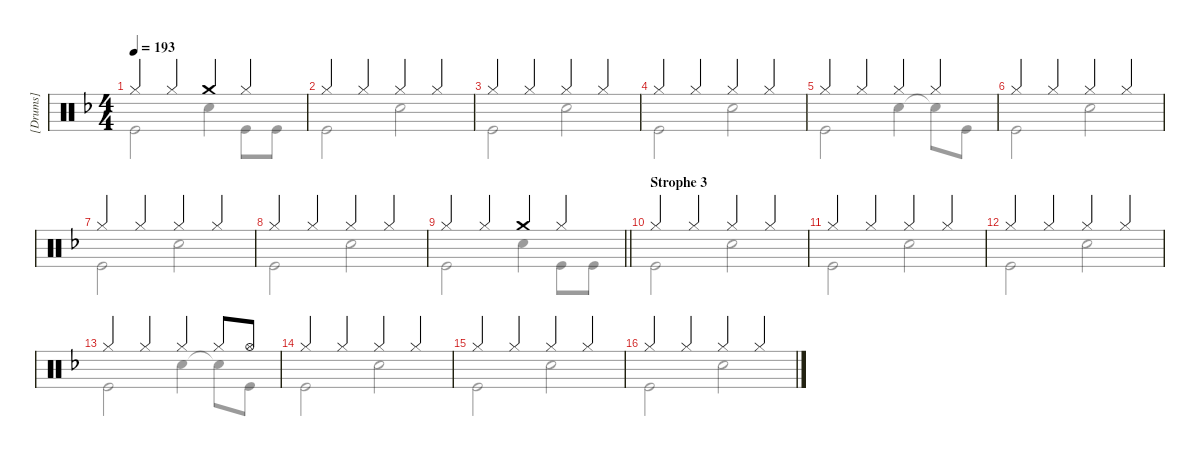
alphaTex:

\hideDynamics
\bracketExtendMode groupsimilarinstruments
\firstSystemTrackNameMode fullname
\otherSystemsTrackNameMode fullname
\otherSystemsTrackNameOrientation horizontal
\track ("[Drums]" "Drums") {instrument percussion}
\staff {score}
\articulation defaults
\voice
\ts (4 4)
\tempo 193
\clef neutral
\ks f "Hi-Hat (closed)".4{dy ff} "Hi-Hat (closed)".4 "Crash medium (hit)".4 "Hi-Hat (closed)".4
|
"Hi-Hat (closed)".4 "Hi-Hat (closed)".4 "Hi-Hat (closed)".4 "Hi-Hat (closed)".4 |
"Hi-Hat (closed)".4 "Hi-Hat (closed)".4 "Hi-Hat (closed)".4 "Hi-Hat (closed)".4 |
"Hi-Hat (closed)".4 "Hi-Hat (closed)".4 "Hi-Hat (closed)".4 "Hi-Hat (closed)".4 |
"Hi-Hat (closed)".4 "Hi-Hat (closed)".4 "Hi-Hat (closed)".4 "Hi-Hat (closed)".4 |
"Hi-Hat (closed)".4 "Hi-Hat (closed)".4 "Hi-Hat (closed)".4 "Hi-Hat (closed)".4 |
"Hi-Hat (closed)".4 "Hi-Hat (closed)".4 "Hi-Hat (closed)".4 "Hi-Hat (closed)".4 |
"Hi-Hat (closed)".4 "Hi-Hat (closed)".4 "Hi-Hat (closed)".4 "Hi-Hat (closed)".4 |
\barLineRight lightlight "Hi-Hat (closed)".4 "Hi-Hat (closed)".4 "Crash medium (hit)".4 "Hi-Hat (closed)".4
|
\section ("" "Strophe 3")
"Hi-Hat (closed)".4 "Hi-Hat (closed)".4 "Hi-Hat (closed)".4 "Hi-Hat (closed)".4 |
"Hi-Hat (closed)".4 "Hi-Hat (closed)".4 "Hi-Hat (closed)".4 "Hi-Hat (closed)".4 |
"Hi-Hat (closed)".4 "Hi-Hat (closed)".4 "Hi-Hat (closed)".4 "Hi-Hat (closed)".4 |
"Hi-Hat (closed)".4 "Hi-Hat (closed)".4 "Hi-Hat (closed)".4 "Hi-Hat (closed)".8 "Hi-Hat (open)".8 |
"Hi-Hat (closed)".4 "Hi-Hat (closed)".4 "Hi-Hat (closed)".4 "Hi-Hat (closed)".4 |
"Hi-Hat (closed)".4 "Hi-Hat (closed)".4 "Hi-Hat (closed)".4 "Hi-Hat (closed)".4 |
"Hi-Hat (closed)".4 "Hi-Hat (closed)".4 "Hi-Hat (closed)".4 "Hi-Hat (closed)".4
\voice
\clef neutral
\ottava regular
\simile none
\ks f "Kick (hit)".2{dy f} "Snare (hit) 2".4 "Kick (hit)".8 "Kick (hit)".8
|
"Kick (hit)".2 "Snare (hit) 2".2 |
"Kick (hit)".2 "Snare (hit) 2".2 |
"Kick (hit)".2 "Snare (hit) 2".2 |
"Kick (hit)".2 "Snare (hit) 2".4 "Snare (hit) 2"{t}.8 "Kick (hit)".8 |
"Kick (hit)".2 "Snare (hit) 2".2 |
"Kick (hit)".2 "Snare (hit) 2".2 |
"Kick (hit)".2 "Snare (hit) 2".2 |
\barLineRight lightlight "Kick (hit)".2 "Snare (hit) 2".4 "Kick (hit)".8 "Kick (hit)".8
|
"Kick (hit)".2 "Snare (hit) 2".2 |
"Kick (hit)".2 "Snare (hit) 2".2 |
"Kick (hit)".2 "Snare (hit) 2".2 |
"Kick (hit)".2 "Snare (hit) 2".4 "Snare (hit) 2"{t}.8 "Kick (hit)".8 |
"Kick (hit)".2 "Snare (hit) 2".2 |
"Kick (hit)".2 "Snare (hit) 2".2 |
"Kick (hit)".2 "Snare (hit) 2".2
